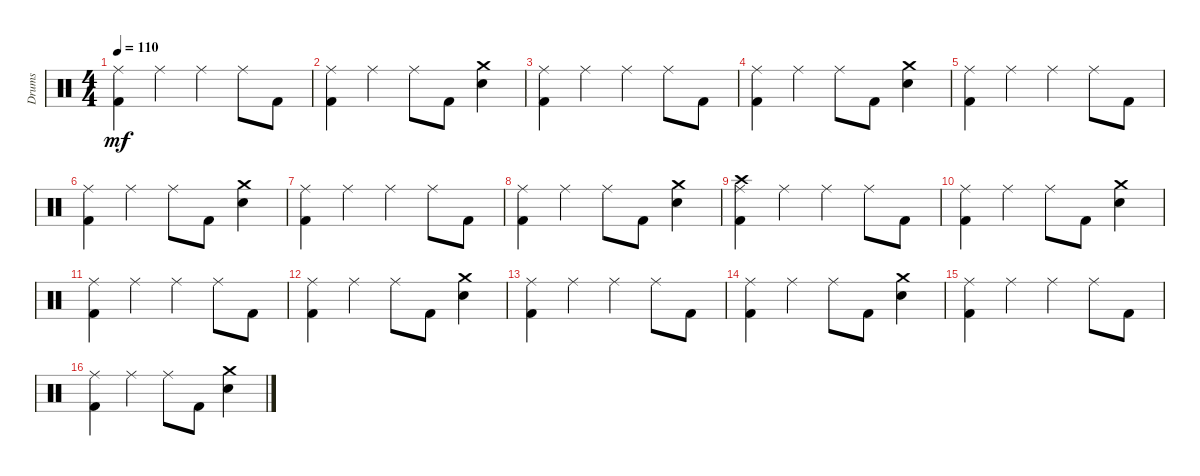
\track ("Drums" "Drums") {instrument percussion}
\staff {score}
\articulation defaults
\ts (4 4)
\tempo 110
\clef neutral
\ks c
("Ride (middle)" "Kick (hit) 2").4{dy mf} "Ride (middle)".4 "Ride (middle)".4 "Ride (middle)".8 "Kick (hit) 2".8 |
("Ride (middle)" "Kick (hit) 2").4 "Ride (middle)".4 "Ride (middle)".8 "Kick (hit) 2".8 ("Crash medium (hit)" "Electric Snare (hit)").4 |
("Ride (middle)" "Kick (hit) 2").4 "Ride (middle)".4 "Ride (middle)".4 "Ride (middle)".8 "Kick (hit) 2".8 |
("Ride (middle)" "Kick (hit) 2").4 "Ride (middle)".4 "Ride (middle)".8 "Kick (hit) 2".8 ("Crash medium (hit)" "Electric Snare (hit)").4 |
("Ride (middle)" "Kick (hit) 2").4 "Ride (middle)".4 "Ride (middle)".4 "Ride (middle)".8 "Kick (hit) 2".8 |
("Ride (middle)" "Kick (hit) 2").4 "Ride (middle)".4 "Ride (middle)".8 "Kick (hit) 2".8 ("Crash medium (hit)" "Electric Snare (hit)").4 |
("Ride (middle)" "Kick (hit) 2").4 "Ride (middle)".4 "Ride (middle)".4 "Ride (middle)".8 "Kick (hit) 2".8 |
("Ride (middle)" "Kick (hit) 2").4 "Ride (middle)".4 "Ride (middle)".8 "Kick (hit) 2".8 ("Crash medium (hit)" "Electric Snare (hit)").4 |
("Crash high (hit)" "Ride (middle)" "Kick (hit) 2").4 "Ride (middle)".4 "Ride (middle)".4 "Ride (middle)".8 "Kick (hit) 2".8 |
("Ride (middle)" "Kick (hit) 2").4 "Ride (middle)".4 "Ride (middle)".8 "Kick (hit) 2".8 ("Crash medium (hit)" "Electric Snare (hit)").4 |
("Ride (middle)" "Kick (hit) 2").4 "Ride (middle)".4 "Ride (middle)".4 "Ride (middle)".8 "Kick (hit) 2".8 |
("Ride (middle)" "Kick (hit) 2").4 "Ride (middle)".4 "Ride (middle)".8 "Kick (hit) 2".8 ("Crash medium (hit)" "Electric Snare (hit)").4 |
("Ride (middle)" "Kick (hit) 2").4 "Ride (middle)".4 "Ride (middle)".4 "Ride (middle)".8 "Kick (hit) 2".8 |
("Ride (middle)" "Kick (hit) 2").4 "Ride (middle)".4 "Ride (middle)".8 "Kick (hit) 2".8 ("Crash medium (hit)" "Electric Snare (hit)").4 |
("Ride (middle)" "Kick (hit) 2").4 "Ride (middle)".4 "Ride (middle)".4 "Ride (middle)".8 "Kick (hit) 2".8 |
("Ride (middle)" "Kick (hit) 2").4 "Ride (middle)".4 "Ride (middle)".8 "Kick (hit) 2".8 ("Crash medium (hit)" "Electric Snare (hit)").4
